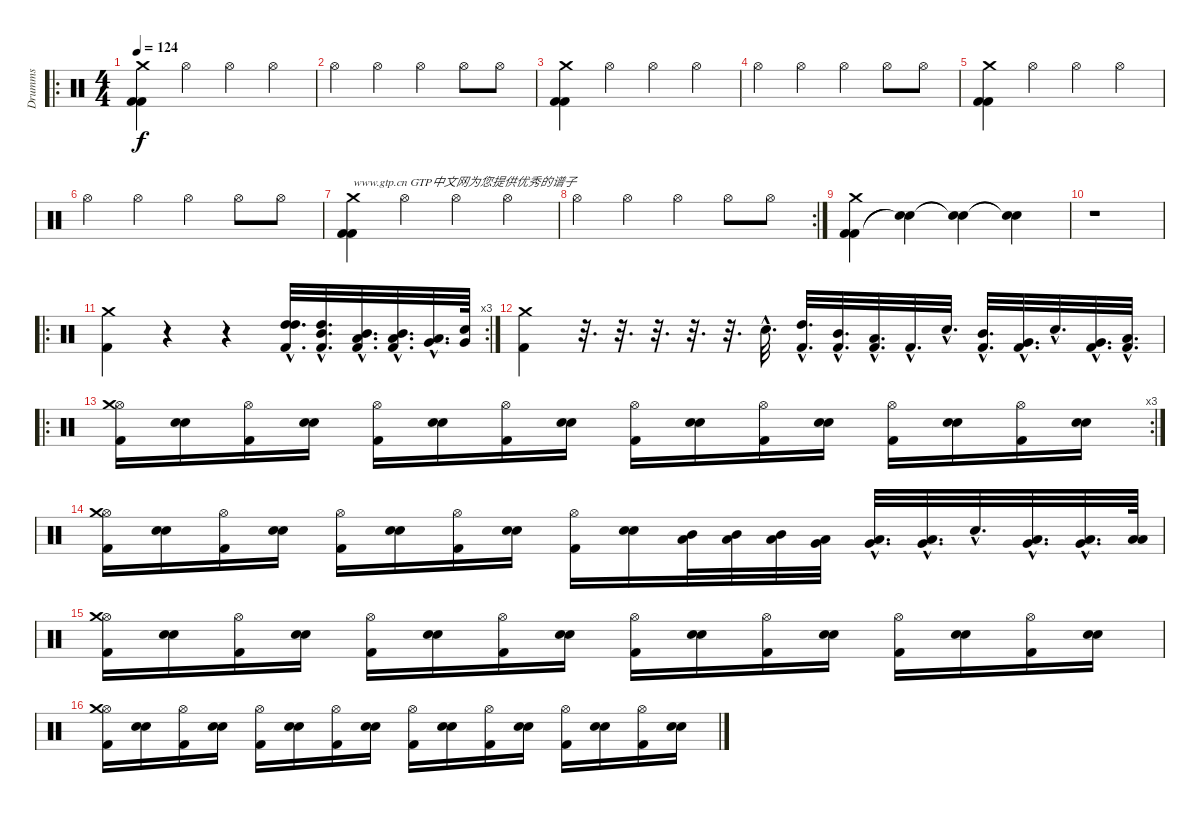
\track ("Drumms" "Drumms") {instrument percussion}
\staff {score}
\articulation defaults
\ro
\ts (4 4)
\tempo 124
\clef neutral
\ks c
("Kick (hit) 2" "Kick (hit) 2" "Crash medium (hit)").4{dy f} "Hi-Hat (open)".4 "Hi-Hat (open)".4 "Hi-Hat (open)".4 |
"Hi-Hat (open)".4 "Hi-Hat (open)".4 "Hi-Hat (open)".4 "Hi-Hat (open)".8 "Hi-Hat (open)".8 |
("Kick (hit) 2" "Kick (hit) 2" "Crash medium (hit)").4 "Hi-Hat (open)".4 "Hi-Hat (open)".4 "Hi-Hat (open)".4 |
"Hi-Hat (open)".4 "Hi-Hat (open)".4 "Hi-Hat (open)".4 "Hi-Hat (open)".8 "Hi-Hat (open)".8 |
("Kick (hit) 2" "Kick (hit) 2" "Crash medium (hit)").4 "Hi-Hat (open)".4 "Hi-Hat (open)".4 "Hi-Hat (open)".4 |
"Hi-Hat (open)".4 "Hi-Hat (open)".4 "Hi-Hat (open)".4 "Hi-Hat (open)".8 "Hi-Hat (open)".8 |
("Kick (hit) 2" "Kick (hit) 2" "Crash medium (hit)").4{txt "www.gtp.cn GTP中文网为您提供优秀的谱子"} "Hi-Hat (open)".4 "Hi-Hat (open)".4 "Hi-Hat (open)".4 |
\rc 2 "Hi-Hat (open)".4 "Hi-Hat (open)".4 "Hi-Hat (open)".4 "Hi-Hat (open)".8 "Hi-Hat (open)".8
|
("Kick (hit) 2" "Kick (hit) 2" "Crash medium (hit)").4 ("Snare (hit)"{t} "Snare (hit)"{t}).4 ("Snare (hit)"{t} "Snare (hit)"{t}).4 ("Snare (hit)"{t} "Snare (hit)"{t}).4 |
r.1 |
\ro
\rc 3
("Kick (hit) 2" "Crash medium (hit)").4 r.4 r.4 ("Kick (hit) 2"{hac} "High Tom (hit)"{hac} "High Tom (hit)"{hac}).32{d} ("Kick (hit) 2"{hac} "Mid Tom (hit)"{hac} "High Tom (hit)"{hac}).32{d} ("Kick (hit) 2"{hac} "Low Tom (hit)"{hac} "Mid Tom (hit)"{hac}).32{d} ("Kick (hit) 2"{hac} "Low Tom (hit)"{hac} "Mid Tom (hit)"{hac}).32{d} ("Low Tom (hit)"{hac} "Very Low Tom (hit)"{hac}).32{d} ("Metronome (bell)" "Very Low Tom (hit)").64 |
("Kick (hit) 2" "Crash medium (hit)").4 r.32{d} r.32{d} r.32{d} r.32{d} r.32{d} "Snare (hit) 2"{hac}.32{d volume 13} ("High Tom (hit)"{hac} "Kick (hit) 2"{hac}).32{d volume 9} ("Mid Tom (hit)"{hac} "Kick (hit) 2"{hac}).32{d} ("Low Tom (hit)"{hac} "Kick (hit) 2"{hac}).32{d} "Kick (hit) 2"{hac}.32{d} "Snare (hit) 2"{hac}.32{d volume 13} ("Mid Tom (hit)"{hac} "Kick (hit) 2"{hac}).32{d volume 9} ("Very Low Tom (hit)"{hac} "Kick (hit) 2"{hac}).32{d} "Snare (hit) 2"{hac}.32{d volume 13} ("Very Low Tom (hit)"{hac} "Kick (hit) 2"{hac}).32{d volume 9} ("Low Floor Tom (hit)"{hac} "Kick (hit) 2"{hac}).32{d} |
\ro
\rc 3
("Kick (hit) 2" "Hi-Hat (open)" "Crash medium (hit)").16 ("Snare (hit) 2" "Snare (hit) 2").16 ("Kick (hit) 2" "Hi-Hat (open)").16 ("Snare (hit) 2" "Snare (hit) 2").16 ("Kick (hit) 2" "Hi-Hat (open)").16 ("Snare (hit) 2" "Snare (hit) 2").16 ("Kick (hit) 2" "Hi-Hat (open)").16 ("Snare (hit) 2" "Snare (hit) 2").16 ("Kick (hit) 2" "Hi-Hat (open)").16 ("Snare (hit) 2" "Snare (hit) 2").16 ("Kick (hit) 2" "Hi-Hat (open)").16 ("Snare (hit) 2" "Snare (hit) 2").16 ("Kick (hit) 2" "Hi-Hat (open)").16 ("Snare (hit) 2" "Snare (hit) 2").16 ("Kick (hit) 2" "Hi-Hat (open)").16 ("Snare (hit) 2" "Snare (hit) 2").16 |
("Kick (hit) 2" "Hi-Hat (open)" "Crash medium (hit)").16 ("Snare (hit) 2" "Snare (hit) 2").16 ("Kick (hit) 2" "Hi-Hat (open)").16 ("Snare (hit) 2" "Snare (hit) 2").16 ("Kick (hit) 2" "Hi-Hat (open)").16 ("Snare (hit) 2" "Snare (hit) 2").16 ("Kick (hit) 2" "Hi-Hat (open)").16 ("Snare (hit) 2" "Snare (hit) 2").16 ("Kick (hit) 2" "Hi-Hat (open)").16 ("Snare (hit) 2" "Snare (hit) 2").16 ("Mid Tom (hit)" "Low Tom (hit)").32 ("Mid Tom (hit)" "Low Tom (hit)").32 ("Mid Tom (hit)" "Low Tom (hit)").32 ("Low Tom (hit)" "Very Low Tom (hit)").32 ("Low Tom (hit)"{hac} "Very Low Tom (hit)"{hac}).32{d} ("Low Tom (hit)"{hac} "Very Low Tom (hit)"{hac}).32{d} "Snare (hit) 2"{hac}.32{d} ("Very Low Tom (hit)"{hac} "Low Floor Tom (hit)"{hac}).32{d} ("Very Low Tom (hit)"{hac} "Low Floor Tom (hit)"{hac}).32{d} ("Low Floor Tom (hit)" "Low Floor Tom (hit)").64 |
("Kick (hit) 2" "Hi-Hat (open)" "Crash medium (hit)").16 ("Snare (hit) 2" "Snare (hit) 2").16 ("Kick (hit) 2" "Hi-Hat (open)").16 ("Snare (hit) 2" "Snare (hit) 2").16 ("Kick (hit) 2" "Hi-Hat (open)").16 ("Snare (hit) 2" "Snare (hit) 2").16 ("Kick (hit) 2" "Hi-Hat (open)").16 ("Snare (hit) 2" "Snare (hit) 2").16 ("Kick (hit) 2" "Hi-Hat (open)").16 ("Snare (hit) 2" "Snare (hit) 2").16 ("Kick (hit) 2" "Hi-Hat (open)").16 ("Snare (hit) 2" "Snare (hit) 2").16 ("Kick (hit) 2" "Hi-Hat (open)").16 ("Snare (hit) 2" "Snare (hit) 2").16 ("Kick (hit) 2" "Hi-Hat (open)").16 ("Snare (hit) 2" "Snare (hit) 2").16 |
("Kick (hit) 2" "Hi-Hat (open)" "Crash medium (hit)").16 ("Snare (hit) 2" "Snare (hit) 2").16 ("Kick (hit) 2" "Hi-Hat (open)").16 ("Snare (hit) 2" "Snare (hit) 2").16 ("Kick (hit) 2" "Hi-Hat (open)").16 ("Snare (hit) 2" "Snare (hit) 2").16 ("Kick (hit) 2" "Hi-Hat (open)").16 ("Snare (hit) 2" "Snare (hit) 2").16 ("Kick (hit) 2" "Hi-Hat (open)").16 ("Snare (hit) 2" "Snare (hit) 2").16 ("Kick (hit) 2" "Hi-Hat (open)").16 ("Snare (hit) 2" "Snare (hit) 2").16 ("Kick (hit) 2" "Hi-Hat (open)").16 ("Snare (hit) 2" "Snare (hit) 2").16 ("Kick (hit) 2" "Hi-Hat (open)").16 ("Snare (hit) 2" "Snare (hit) 2").16
